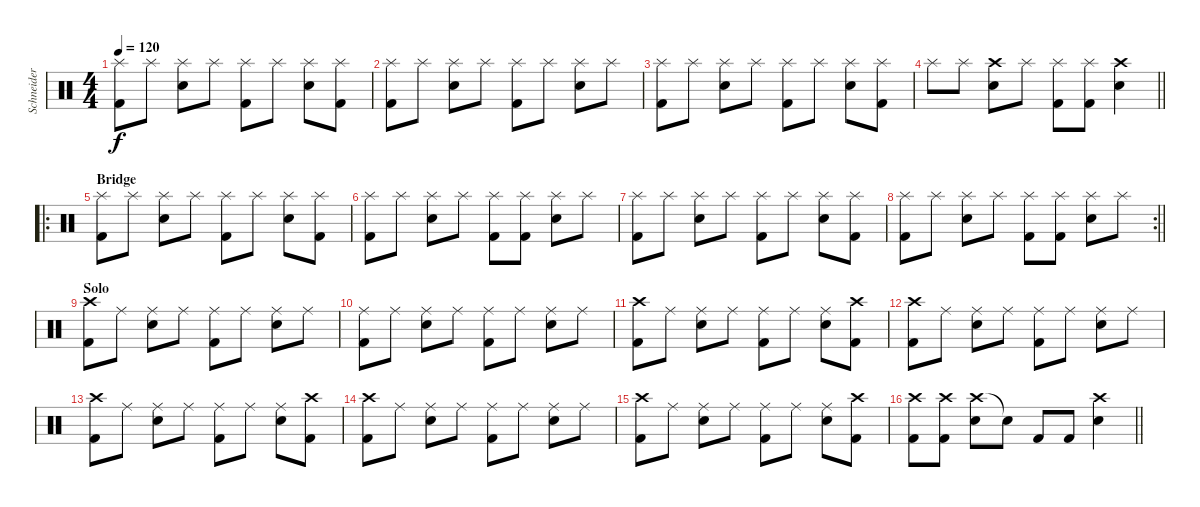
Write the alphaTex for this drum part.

\track ("Schneider" "Schneider") {instrument percussion}
\staff {score}
\articulation defaults
\ts (4 4)
\tempo 120
\clef neutral
\ks c
("Splash (hit)" "Kick (hit) 2").8{dy f} "Splash (hit)".8 ("Splash (hit)" "Electric Snare (hit)").8 "Splash (hit)".8 ("Splash (hit)" "Kick (hit) 2").8 "Splash (hit)".8 ("Splash (hit)" "Electric Snare (hit)").8 ("Splash (hit)" "Kick (hit) 2").8 |
("Splash (hit)" "Kick (hit) 2").8 "Splash (hit)".8 ("Splash (hit)" "Electric Snare (hit)").8 "Splash (hit)".8 ("Splash (hit)" "Kick (hit) 2").8 "Splash (hit)".8 ("Splash (hit)" "Electric Snare (hit)").8 "Splash (hit)".8 |
("Splash (hit)" "Kick (hit) 2").8 "Splash (hit)".8 ("Splash (hit)" "Electric Snare (hit)").8 "Splash (hit)".8 ("Splash (hit)" "Kick (hit) 2").8 "Splash (hit)".8 ("Splash (hit)" "Electric Snare (hit)").8 ("Splash (hit)" "Kick (hit) 2").8 |
\barLineRight lightlight "Splash (hit)".8 "Splash (hit)".8
("Crash high (hit)" "Electric Snare (hit)").8 "Splash (hit)".8 ("Splash (hit)" "Kick (hit) 2").8 ("Splash (hit)" "Kick (hit) 2").8 ("Crash high (hit)" "Electric Snare (hit)").4 |
\ro
\section ("" "Bridge")
("Splash (hit)" "Kick (hit) 2").8 "Splash (hit)".8 ("Splash (hit)" "Electric Snare (hit)").8 "Splash (hit)".8 ("Splash (hit)" "Kick (hit) 2").8 "Splash (hit)".8 ("Splash (hit)" "Electric Snare (hit)").8 ("Splash (hit)" "Kick (hit) 2").8 |
("Splash (hit)" "Kick (hit) 2").8 "Splash (hit)".8 ("Splash (hit)" "Electric Snare (hit)").8 "Splash (hit)".8 ("Splash (hit)" "Kick (hit) 2").8 ("Splash (hit)" "Kick (hit) 2").8 ("Splash (hit)" "Electric Snare (hit)").8 "Splash (hit)".8 |
("Splash (hit)" "Kick (hit) 2").8 "Splash (hit)".8 ("Splash (hit)" "Electric Snare (hit)").8 "Splash (hit)".8 ("Splash (hit)" "Kick (hit) 2").8 "Splash (hit)".8 ("Splash (hit)" "Electric Snare (hit)").8 ("Splash (hit)" "Kick (hit) 2").8 |
\rc 2
\barLineRight lightlight
("Splash (hit)" "Kick (hit) 2").8 "Splash (hit)".8 ("Splash (hit)" "Electric Snare (hit)").8 "Splash (hit)".8 ("Splash (hit)" "Kick (hit) 2").8 ("Splash (hit)" "Kick (hit) 2").8 ("Splash (hit)" "Electric Snare (hit)").8 "Splash (hit)".8 |
\section ("" "Solo")
("Crash high (hit)" "Kick (hit) 2").8 "Ride (middle)".8 ("Ride (middle)" "Electric Snare (hit)").8 "Ride (middle)".8 ("Ride (middle)" "Kick (hit) 2").8 "Ride (middle)".8 ("Ride (middle)" "Electric Snare (hit)").8 "Ride (middle)".8 |
("Ride (middle)" "Kick (hit) 2").8 "Ride (middle)".8 ("Ride (middle)" "Electric Snare (hit)").8 "Ride (middle)".8 ("Ride (middle)" "Kick (hit) 2").8 "Ride (middle)".8 ("Ride (middle)" "Electric Snare (hit)").8 "Ride (middle)".8 |
("Crash high (hit)" "Kick (hit) 2").8 "Ride (middle)".8 ("Ride (middle)" "Electric Snare (hit)").8 "Ride (middle)".8 ("Ride (middle)" "Kick (hit) 2").8 "Ride (middle)".8 ("Ride (middle)" "Electric Snare (hit)").8 ("Crash high (hit)" "Kick (hit) 2").8 |
("Crash high (hit)" "Kick (hit) 2").8 "Ride (middle)".8 ("Ride (middle)" "Electric Snare (hit)").8 "Ride (middle)".8 ("Ride (middle)" "Kick (hit) 2").8 "Ride (middle)".8 ("Ride (middle)" "Electric Snare (hit)").8 "Ride (middle)".8 |
("Crash high (hit)" "Kick (hit) 2").8 "Ride (middle)".8 ("Ride (middle)" "Electric Snare (hit)").8 "Ride (middle)".8 ("Ride (middle)" "Kick (hit) 2").8 "Ride (middle)".8 ("Ride (middle)" "Electric Snare (hit)").8 ("Crash high (hit)" "Kick (hit) 2").8 |
("Crash high (hit)" "Kick (hit) 2").8 "Ride (middle)".8 ("Ride (middle)" "Electric Snare (hit)").8 "Ride (middle)".8 ("Ride (middle)" "Kick (hit) 2").8 "Ride (middle)".8 ("Ride (middle)" "Electric Snare (hit)").8 "Ride (middle)".8 |
("Crash high (hit)" "Kick (hit) 2").8 "Ride (middle)".8 ("Ride (middle)" "Electric Snare (hit)").8 "Ride (middle)".8 ("Ride (middle)" "Kick (hit) 2").8 "Ride (middle)".8 ("Ride (middle)" "Electric Snare (hit)").8 ("Crash high (hit)" "Kick (hit) 2").8 |
\barLineRight lightlight
("Crash high (hit)" "Kick (hit) 2").8 ("Crash high (hit)" "Kick (hit) 2").8 ("Crash high (hit)" "Electric Snare (hit)").8 "Snare (hit)"{t}.8 "Kick (hit) 2".8 "Kick (hit) 2".8 ("Crash high (hit)" "Electric Snare (hit)").4
